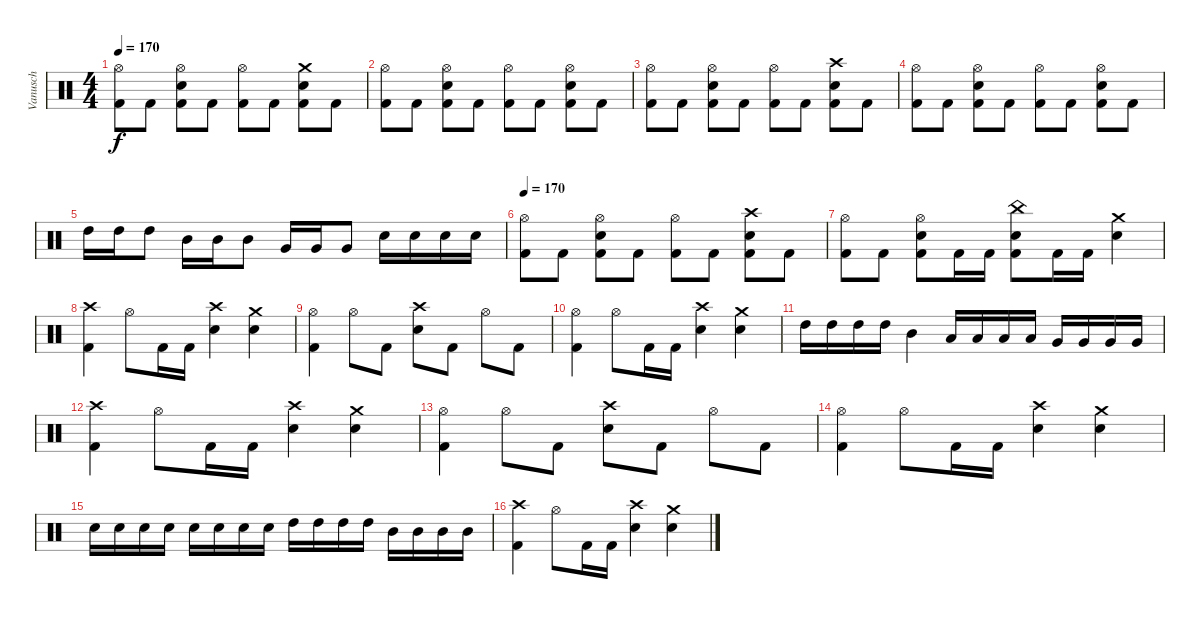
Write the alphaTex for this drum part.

\track ("Vanusch" "Vanusch") {instrument percussion}
\staff {score}
\articulation defaults
\ts (4 4)
\tempo 170
\clef neutral
\ks c
("Hi-Hat (open)" "Kick (hit) 2").8{dy f} "Kick (hit) 2".8 ("Hi-Hat (open)" "Snare (hit) 2" "Kick (hit) 2").8 "Kick (hit) 2".8 ("Hi-Hat (open)" "Kick (hit) 2").8 "Kick (hit) 2".8 ("Crash medium (hit)" "Snare (hit) 2" "Kick (hit) 2").8 "Kick (hit) 2".8 |
("Hi-Hat (open)" "Kick (hit) 2").8 "Kick (hit) 2".8 ("Hi-Hat (open)" "Snare (hit) 2" "Kick (hit) 2").8 "Kick (hit) 2".8 ("Hi-Hat (open)" "Kick (hit) 2").8 "Kick (hit) 2".8 ("Hi-Hat (open)" "Snare (hit) 2" "Kick (hit) 2").8 "Kick (hit) 2".8 |
("Hi-Hat (open)" "Kick (hit) 2").8 "Kick (hit) 2".8 ("Hi-Hat (open)" "Snare (hit) 2" "Kick (hit) 2").8 "Kick (hit) 2".8 ("Hi-Hat (open)" "Kick (hit) 2").8 "Kick (hit) 2".8 ("Crash high (hit)" "Snare (hit) 2" "Kick (hit) 2").8 "Kick (hit) 2".8 |
("Hi-Hat (open)" "Kick (hit) 2").8 "Kick (hit) 2".8 ("Hi-Hat (open)" "Snare (hit) 2" "Kick (hit) 2").8 "Kick (hit) 2".8 ("Hi-Hat (open)" "Kick (hit) 2").8 "Kick (hit) 2".8 ("Hi-Hat (open)" "Snare (hit) 2" "Kick (hit) 2").8 "Kick (hit) 2".8 |
"High Tom (hit)".16 "High Tom (hit)".16 "High Tom (hit)".8 "Mid Tom (hit)".16 "Mid Tom (hit)".16 "Mid Tom (hit)".8 "Very Low Tom (hit)".16 "Very Low Tom (hit)".16 "Very Low Tom (hit)".8 "Snare (hit) 2".16 "Snare (hit) 2".16 "Snare (hit) 2".16 "Snare (hit) 2".16 |
\tempo 170
("Hi-Hat (open)" "Kick (hit) 2").8 "Kick (hit) 2".8 ("Hi-Hat (open)" "Snare (hit) 2" "Kick (hit) 2").8 "Kick (hit) 2".8 ("Hi-Hat (open)" "Kick (hit) 2").8 "Kick (hit) 2".8 ("Crash high (hit)" "Snare (hit) 2" "Kick (hit) 2").8 "Kick (hit) 2".8 |
("Hi-Hat (open)" "Kick (hit) 2").8 "Kick (hit) 2".8 ("Hi-Hat (open)" "Snare (hit) 2" "Kick (hit) 2").8 "Kick (hit) 2".16 "Kick (hit) 2".16 ("China (hit)" "Snare (hit) 2" "Kick (hit) 2").8 "Kick (hit) 2".16 "Kick (hit) 2".16 ("Crash medium (hit)" "Snare (hit) 2").4 |
("Crash high (hit)" "Kick (hit) 2").4 "Hi-Hat (open)".8 "Kick (hit) 2".16 "Kick (hit) 2".16 ("Crash high (hit)" "Snare (hit) 2").4 ("Crash medium (hit)" "Snare (hit) 2").4 |
("Hi-Hat (open)" "Kick (hit) 2").4 "Hi-Hat (open)".8 "Kick (hit) 2".8 ("Crash high (hit)" "Snare (hit) 2").8 "Kick (hit) 2".8 "Hi-Hat (open)".8 "Kick (hit) 2".8 |
("Hi-Hat (open)" "Kick (hit) 2").4 "Hi-Hat (open)".8 "Kick (hit) 2".16 "Kick (hit) 2".16 ("Crash high (hit)" "Snare (hit) 2").4 ("Crash medium (hit)" "Snare (hit) 2").4 |
"High Tom (hit)".16 "High Tom (hit)".16 "High Tom (hit)".16 "High Tom (hit)".16 "Mid Tom (hit)".4 "Low Tom (hit)".16 "Low Tom (hit)".16 "Low Tom (hit)".16 "Low Tom (hit)".16 "Very Low Tom (hit)".16 "Very Low Tom (hit)".16 "Very Low Tom (hit)".16 "Very Low Tom (hit)".16 |
("Crash high (hit)" "Kick (hit) 2").4 "Hi-Hat (open)".8 "Kick (hit) 2".16 "Kick (hit) 2".16 ("Crash high (hit)" "Snare (hit) 2").4 ("Crash medium (hit)" "Snare (hit) 2").4 |
("Hi-Hat (open)" "Kick (hit) 2").4 "Hi-Hat (open)".8 "Kick (hit) 2".8 ("Crash high (hit)" "Snare (hit) 2").8 "Kick (hit) 2".8 "Hi-Hat (open)".8 "Kick (hit) 2".8 |
("Hi-Hat (open)" "Kick (hit) 2").4 "Hi-Hat (open)".8 "Kick (hit) 2".16 "Kick (hit) 2".16 ("Crash high (hit)" "Snare (hit) 2").4 ("Crash medium (hit)" "Snare (hit) 2").4 |
"Snare (hit) 2".16 "Snare (hit) 2".16 "Snare (hit) 2".16 "Snare (hit) 2".16 "Snare (hit) 2".16 "Snare (hit) 2".16 "Snare (hit) 2".16 "Snare (hit) 2".16 "High Tom (hit)".16 "High Tom (hit)".16 "High Tom (hit)".16 "High Tom (hit)".16 "Mid Tom (hit)".16 "Mid Tom (hit)".16 "Mid Tom (hit)".16 "Mid Tom (hit)".16 |
("Crash high (hit)" "Kick (hit) 2").4 "Hi-Hat (open)".8 "Kick (hit) 2".16 "Kick (hit) 2".16 ("Crash high (hit)" "Snare (hit) 2").4 ("Crash medium (hit)" "Snare (hit) 2").4
